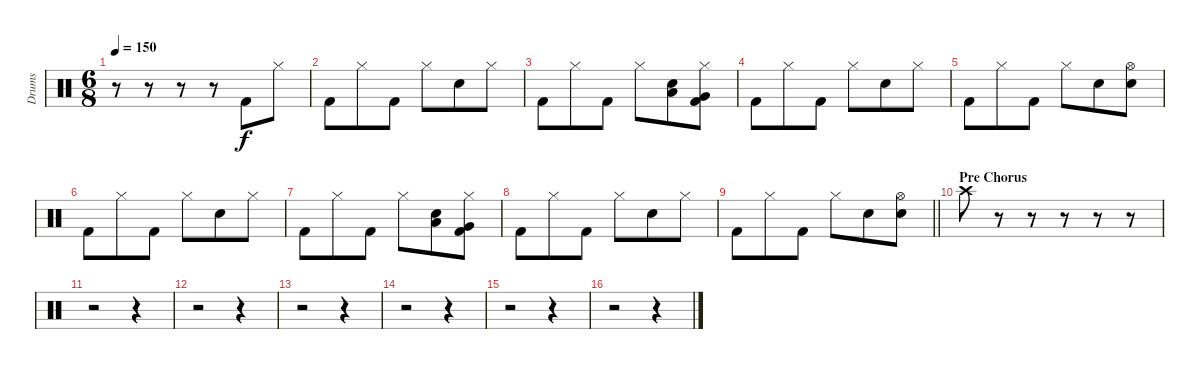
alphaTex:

\track ("Drums" "Drums") {mute instrument percussion}
\staff {score}
\articulation defaults
\ts (6 8)
\tempo 150
\clef neutral
\ks c
r.8{dy f} r.8 r.8 r.8 "Kick (hit) 2".8 "Hi-Hat (closed)".8 |
"Kick (hit) 2".8 "Hi-Hat (closed)".8 "Kick (hit) 2".8 "Hi-Hat (closed)".8 "Electric Snare (hit)".8 "Hi-Hat (closed)".8 |
"Kick (hit) 2".8 "Hi-Hat (closed)".8 "Kick (hit) 2".8 "Hi-Hat (closed)".8 ("Low Tom (hit)" "Electric Snare (hit)").8 ("Very Low Tom (hit)" "Hi-Hat (closed)" "Kick (hit) 2").8 |
"Kick (hit) 2".8 "Hi-Hat (closed)".8 "Kick (hit) 2".8 "Hi-Hat (closed)".8 "Electric Snare (hit)".8 "Hi-Hat (closed)".8 |
"Kick (hit) 2".8 "Hi-Hat (closed)".8 "Kick (hit) 2".8 "Hi-Hat (closed)".8 "Electric Snare (hit)".8 ("Hi-Hat (open)" "Electric Snare (hit)").8 |
"Kick (hit) 2".8 "Hi-Hat (closed)".8 "Kick (hit) 2".8 "Hi-Hat (closed)".8 "Electric Snare (hit)".8 "Hi-Hat (closed)".8 |
"Kick (hit) 2".8 "Hi-Hat (closed)".8 "Kick (hit) 2".8 "Hi-Hat (closed)".8 ("Low Tom (hit)" "Electric Snare (hit)").8 ("Very Low Tom (hit)" "Hi-Hat (closed)" "Kick (hit) 2").8 |
"Kick (hit) 2".8 "Hi-Hat (closed)".8 "Kick (hit) 2".8 "Hi-Hat (closed)".8 "Electric Snare (hit)".8 "Hi-Hat (closed)".8 |
\barLineRight lightlight "Kick (hit) 2".8 "Hi-Hat (closed)".8 "Kick (hit) 2".8 "Hi-Hat (closed)".8 "Electric Snare (hit)".8
("Hi-Hat (open)" "Electric Snare (hit)").8 |
\section ("" "Pre Chorus")
"Crash high (hit)".8 r.8 r.8 r.8 r.8 r.8 |
r.2 r.4 |
r.2 r.4 |
r.2 r.4 |
r.2 r.4 |
r.2 r.4 |
r.2 r.4
